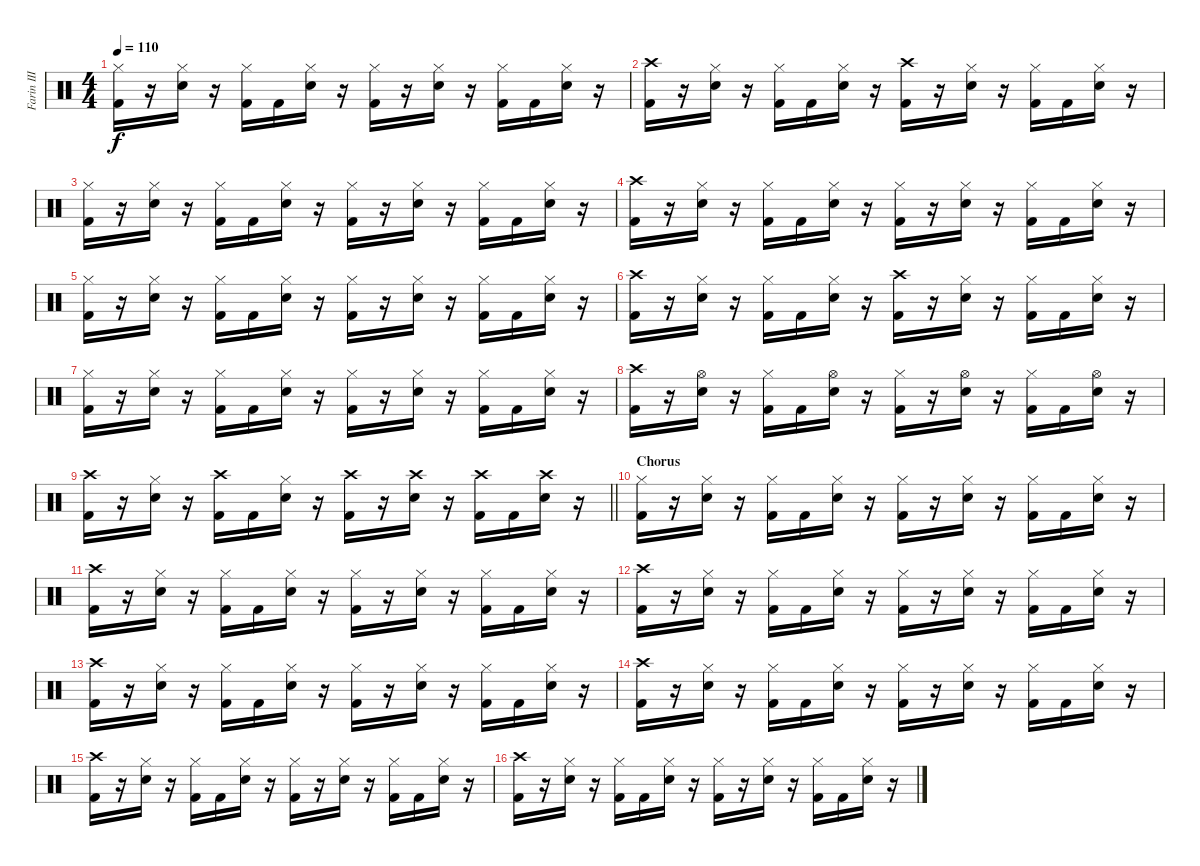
\track ("Farin III" "Farin III") {instrument percussion}
\staff {score}
\articulation defaults
\ts (4 4)
\tempo 110
\clef neutral
\ks c
("Hi-Hat (closed)" "Kick (hit) 2").16{dy f} r.16 ("Hi-Hat (closed)" "Snare (hit) 2").16 r.16 ("Hi-Hat (closed)" "Kick (hit) 2").16 "Kick (hit) 2".16 ("Hi-Hat (closed)" "Snare (hit) 2").16 r.16 ("Hi-Hat (closed)" "Kick (hit) 2").16 r.16 ("Hi-Hat (closed)" "Snare (hit) 2").16 r.16 ("Hi-Hat (closed)" "Kick (hit) 2").16 "Kick (hit) 2".16 ("Hi-Hat (closed)" "Snare (hit) 2").16 r.16 |
("Crash high (hit)" "Kick (hit) 2").16 r.16 ("Hi-Hat (closed)" "Snare (hit) 2").16 r.16 ("Hi-Hat (closed)" "Kick (hit) 2").16 "Kick (hit) 2".16 ("Hi-Hat (closed)" "Snare (hit) 2").16 r.16 ("Crash high (hit)" "Kick (hit) 2").16 r.16 ("Hi-Hat (closed)" "Snare (hit) 2").16 r.16 ("Hi-Hat (closed)" "Kick (hit) 2").16 "Kick (hit) 2".16 ("Hi-Hat (closed)" "Snare (hit) 2").16 r.16 |
("Hi-Hat (closed)" "Kick (hit) 2").16 r.16 ("Hi-Hat (closed)" "Snare (hit) 2").16 r.16 ("Hi-Hat (closed)" "Kick (hit) 2").16 "Kick (hit) 2".16 ("Hi-Hat (closed)" "Snare (hit) 2").16 r.16 ("Hi-Hat (closed)" "Kick (hit) 2").16 r.16 ("Hi-Hat (closed)" "Snare (hit) 2").16 r.16 ("Hi-Hat (closed)" "Kick (hit) 2").16 "Kick (hit) 2".16 ("Hi-Hat (closed)" "Snare (hit) 2").16 r.16 |
("Crash high (hit)" "Kick (hit) 2").16 r.16 ("Hi-Hat (closed)" "Snare (hit) 2").16 r.16 ("Hi-Hat (closed)" "Kick (hit) 2").16 "Kick (hit) 2".16 ("Hi-Hat (closed)" "Snare (hit) 2").16 r.16 ("Hi-Hat (closed)" "Kick (hit) 2").16 r.16 ("Hi-Hat (closed)" "Snare (hit) 2").16 r.16 ("Hi-Hat (closed)" "Kick (hit) 2").16 "Kick (hit) 2".16 ("Hi-Hat (closed)" "Snare (hit) 2").16 r.16 |
("Hi-Hat (closed)" "Kick (hit) 2").16 r.16 ("Hi-Hat (closed)" "Snare (hit) 2").16 r.16 ("Hi-Hat (closed)" "Kick (hit) 2").16 "Kick (hit) 2".16 ("Hi-Hat (closed)" "Snare (hit) 2").16 r.16 ("Hi-Hat (closed)" "Kick (hit) 2").16 r.16 ("Hi-Hat (closed)" "Snare (hit) 2").16 r.16 ("Hi-Hat (closed)" "Kick (hit) 2").16 "Kick (hit) 2".16 ("Hi-Hat (closed)" "Snare (hit) 2").16 r.16 |
("Crash high (hit)" "Kick (hit) 2").16 r.16 ("Hi-Hat (closed)" "Snare (hit) 2").16 r.16 ("Hi-Hat (closed)" "Kick (hit) 2").16 "Kick (hit) 2".16 ("Hi-Hat (closed)" "Snare (hit) 2").16 r.16 ("Crash high (hit)" "Kick (hit) 2").16 r.16 ("Hi-Hat (closed)" "Snare (hit) 2").16 r.16 ("Hi-Hat (closed)" "Kick (hit) 2").16 "Kick (hit) 2".16 ("Hi-Hat (closed)" "Snare (hit) 2").16 r.16 |
("Hi-Hat (closed)" "Kick (hit) 2").16 r.16 ("Hi-Hat (closed)" "Snare (hit) 2").16 r.16 ("Hi-Hat (closed)" "Kick (hit) 2").16 "Kick (hit) 2".16 ("Hi-Hat (closed)" "Snare (hit) 2").16 r.16 ("Hi-Hat (closed)" "Kick (hit) 2").16 r.16 ("Hi-Hat (closed)" "Snare (hit) 2").16 r.16 ("Hi-Hat (closed)" "Kick (hit) 2").16 "Kick (hit) 2".16 ("Hi-Hat (closed)" "Snare (hit) 2").16 r.16 |
("Crash high (hit)" "Kick (hit) 2").16 r.16 ("Hi-Hat (open)" "Snare (hit) 2").16 r.16 ("Hi-Hat (closed)" "Kick (hit) 2").16 "Kick (hit) 2".16 ("Hi-Hat (open)" "Snare (hit) 2").16 r.16 ("Hi-Hat (closed)" "Kick (hit) 2").16 r.16 ("Hi-Hat (open)" "Snare (hit) 2").16 r.16 ("Hi-Hat (closed)" "Kick (hit) 2").16 "Kick (hit) 2".16 ("Hi-Hat (open)" "Snare (hit) 2").16 r.16 |
\barLineRight lightlight
("Crash high (hit)" "Kick (hit) 2").16 r.16 ("Hi-Hat (closed)" "Snare (hit) 2").16 r.16 ("Crash high (hit)" "Kick (hit) 2").16 "Kick (hit) 2".16 ("Hi-Hat (closed)" "Snare (hit) 2").16 r.16 ("Crash high (hit)" "Kick (hit) 2").16 r.16 ("Crash high (hit)" "Snare (hit) 2").16 r.16 ("Crash high (hit)" "Kick (hit) 2").16 "Kick (hit) 2".16 ("Crash high (hit)" "Snare (hit) 2").16 r.16 |
\section ("" "Chorus")
("Hi-Hat (closed)" "Kick (hit) 2").16 r.16 ("Hi-Hat (closed)" "Snare (hit) 2").16 r.16 ("Hi-Hat (closed)" "Kick (hit) 2").16 "Kick (hit) 2".16 ("Hi-Hat (closed)" "Snare (hit) 2").16 r.16 ("Hi-Hat (closed)" "Kick (hit) 2").16 r.16 ("Hi-Hat (closed)" "Snare (hit) 2").16 r.16 ("Hi-Hat (closed)" "Kick (hit) 2").16 "Kick (hit) 2".16 ("Hi-Hat (closed)" "Snare (hit) 2").16 r.16 |
("Crash high (hit)" "Kick (hit) 2").16 r.16 ("Hi-Hat (closed)" "Snare (hit) 2").16 r.16 ("Hi-Hat (closed)" "Kick (hit) 2").16 "Kick (hit) 2".16 ("Hi-Hat (closed)" "Snare (hit) 2").16 r.16 ("Hi-Hat (closed)" "Kick (hit) 2").16 r.16 ("Hi-Hat (closed)" "Snare (hit) 2").16 r.16 ("Hi-Hat (closed)" "Kick (hit) 2").16 "Kick (hit) 2".16 ("Hi-Hat (closed)" "Snare (hit) 2").16 r.16 |
("Crash high (hit)" "Kick (hit) 2").16 r.16 ("Hi-Hat (closed)" "Snare (hit) 2").16 r.16 ("Hi-Hat (closed)" "Kick (hit) 2").16 "Kick (hit) 2".16 ("Hi-Hat (closed)" "Snare (hit) 2").16 r.16 ("Hi-Hat (closed)" "Kick (hit) 2").16 r.16 ("Hi-Hat (closed)" "Snare (hit) 2").16 r.16 ("Hi-Hat (closed)" "Kick (hit) 2").16 "Kick (hit) 2".16 ("Hi-Hat (closed)" "Snare (hit) 2").16 r.16 |
("Crash high (hit)" "Kick (hit) 2").16 r.16 ("Hi-Hat (closed)" "Snare (hit) 2").16 r.16 ("Hi-Hat (closed)" "Kick (hit) 2").16 "Kick (hit) 2".16 ("Hi-Hat (closed)" "Snare (hit) 2").16 r.16 ("Hi-Hat (closed)" "Kick (hit) 2").16 r.16 ("Hi-Hat (closed)" "Snare (hit) 2").16 r.16 ("Hi-Hat (closed)" "Kick (hit) 2").16 "Kick (hit) 2".16 ("Hi-Hat (closed)" "Snare (hit) 2").16 r.16 |
("Crash high (hit)" "Kick (hit) 2").16 r.16 ("Hi-Hat (closed)" "Snare (hit) 2").16 r.16 ("Hi-Hat (closed)" "Kick (hit) 2").16 "Kick (hit) 2".16 ("Hi-Hat (closed)" "Snare (hit) 2").16 r.16 ("Hi-Hat (closed)" "Kick (hit) 2").16 r.16 ("Hi-Hat (closed)" "Snare (hit) 2").16 r.16 ("Hi-Hat (closed)" "Kick (hit) 2").16 "Kick (hit) 2".16 ("Hi-Hat (closed)" "Snare (hit) 2").16 r.16 |
("Crash high (hit)" "Kick (hit) 2").16 r.16 ("Hi-Hat (closed)" "Snare (hit) 2").16 r.16 ("Hi-Hat (closed)" "Kick (hit) 2").16 "Kick (hit) 2".16 ("Hi-Hat (closed)" "Snare (hit) 2").16 r.16 ("Hi-Hat (closed)" "Kick (hit) 2").16 r.16 ("Hi-Hat (closed)" "Snare (hit) 2").16 r.16 ("Hi-Hat (closed)" "Kick (hit) 2").16 "Kick (hit) 2".16 ("Hi-Hat (closed)" "Snare (hit) 2").16 r.16 |
("Crash high (hit)" "Kick (hit) 2").16 r.16 ("Hi-Hat (closed)" "Snare (hit) 2").16 r.16 ("Hi-Hat (closed)" "Kick (hit) 2").16 "Kick (hit) 2".16 ("Hi-Hat (closed)" "Snare (hit) 2").16 r.16 ("Hi-Hat (closed)" "Kick (hit) 2").16 r.16 ("Hi-Hat (closed)" "Snare (hit) 2").16 r.16 ("Hi-Hat (closed)" "Kick (hit) 2").16 "Kick (hit) 2".16 ("Hi-Hat (closed)" "Snare (hit) 2").16 r.16
